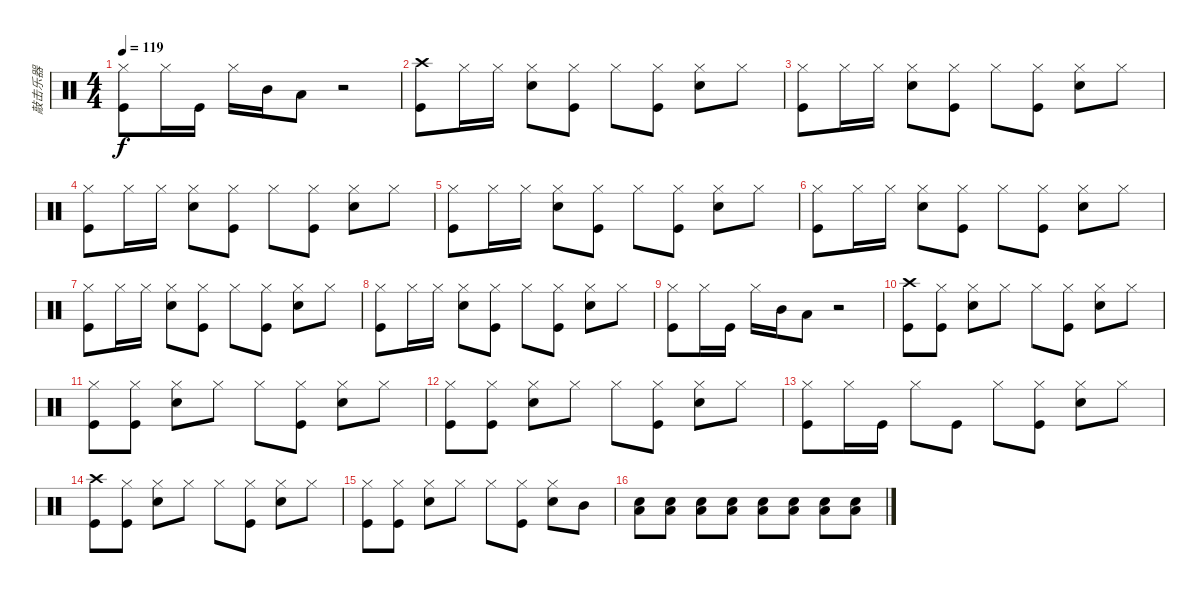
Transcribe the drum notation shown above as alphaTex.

\track ("敲击乐器" "敲击乐器") {instrument percussion}
\staff {score}
\articulation defaults
\ts (4 4)
\tempo 119
\clef neutral
\ks c
("Hi-Hat (closed)" "Kick (hit)").8{dy f} "Hi-Hat (closed)".16 "Kick (hit)".16 "Hi-Hat (closed)".16 "Mid Tom (hit)".16 "Low Tom (hit)".8 r.2 |
("Crash high (hit)" "Kick (hit)").8 "Hi-Hat (closed)".16 "Hi-Hat (closed)".16 ("Hi-Hat (closed)" "Electric Snare (hit)").8 ("Hi-Hat (closed)" "Kick (hit)").8 "Hi-Hat (closed)".8 ("Hi-Hat (closed)" "Kick (hit)").8 ("Hi-Hat (closed)" "Electric Snare (hit)").8 "Hi-Hat (closed)".8 |
("Hi-Hat (closed)" "Kick (hit)").8 "Hi-Hat (closed)".16 "Hi-Hat (closed)".16 ("Hi-Hat (closed)" "Electric Snare (hit)").8 ("Hi-Hat (closed)" "Kick (hit)").8 "Hi-Hat (closed)".8 ("Hi-Hat (closed)" "Kick (hit)").8 ("Hi-Hat (closed)" "Electric Snare (hit)").8 "Hi-Hat (closed)".8 |
("Hi-Hat (closed)" "Kick (hit)").8 "Hi-Hat (closed)".16 "Hi-Hat (closed)".16 ("Hi-Hat (closed)" "Electric Snare (hit)").8 ("Hi-Hat (closed)" "Kick (hit)").8 "Hi-Hat (closed)".8 ("Hi-Hat (closed)" "Kick (hit)").8 ("Hi-Hat (closed)" "Electric Snare (hit)").8 "Hi-Hat (closed)".8 |
("Hi-Hat (closed)" "Kick (hit)").8 "Hi-Hat (closed)".16 "Hi-Hat (closed)".16 ("Hi-Hat (closed)" "Electric Snare (hit)").8 ("Hi-Hat (closed)" "Kick (hit)").8 "Hi-Hat (closed)".8 ("Hi-Hat (closed)" "Kick (hit)").8 ("Hi-Hat (closed)" "Electric Snare (hit)").8 "Hi-Hat (closed)".8 |
("Hi-Hat (closed)" "Kick (hit)").8 "Hi-Hat (closed)".16 "Hi-Hat (closed)".16 ("Hi-Hat (closed)" "Electric Snare (hit)").8 ("Hi-Hat (closed)" "Kick (hit)").8 "Hi-Hat (closed)".8 ("Hi-Hat (closed)" "Kick (hit)").8 ("Hi-Hat (closed)" "Electric Snare (hit)").8 "Hi-Hat (closed)".8 |
("Hi-Hat (closed)" "Kick (hit)").8 "Hi-Hat (closed)".16 "Hi-Hat (closed)".16 ("Hi-Hat (closed)" "Electric Snare (hit)").8 ("Hi-Hat (closed)" "Kick (hit)").8 "Hi-Hat (closed)".8 ("Hi-Hat (closed)" "Kick (hit)").8 ("Hi-Hat (closed)" "Electric Snare (hit)").8 "Hi-Hat (closed)".8 |
("Hi-Hat (closed)" "Kick (hit)").8 "Hi-Hat (closed)".16 "Hi-Hat (closed)".16 ("Hi-Hat (closed)" "Electric Snare (hit)").8 ("Hi-Hat (closed)" "Kick (hit)").8 "Hi-Hat (closed)".8 ("Hi-Hat (closed)" "Kick (hit)").8 ("Hi-Hat (closed)" "Electric Snare (hit)").8 "Hi-Hat (closed)".8 |
("Hi-Hat (closed)" "Kick (hit)").8 "Hi-Hat (closed)".16 "Kick (hit)".16 "Hi-Hat (closed)".16 "Mid Tom (hit)".16 "Low Tom (hit)".8 r.2 |
("Crash high (hit)" "Kick (hit)").8 ("Hi-Hat (closed)" "Kick (hit)").8 ("Hi-Hat (closed)" "Electric Snare (hit)").8 "Hi-Hat (closed)".8 "Hi-Hat (closed)".8 ("Hi-Hat (closed)" "Kick (hit)").8 ("Hi-Hat (closed)" "Electric Snare (hit)").8 "Hi-Hat (closed)".8 |
("Hi-Hat (closed)" "Kick (hit)").8 ("Hi-Hat (closed)" "Kick (hit)").8 ("Hi-Hat (closed)" "Electric Snare (hit)").8 "Hi-Hat (closed)".8 "Hi-Hat (closed)".8 ("Hi-Hat (closed)" "Kick (hit)").8 ("Hi-Hat (closed)" "Electric Snare (hit)").8 "Hi-Hat (closed)".8 |
("Hi-Hat (closed)" "Kick (hit)").8 ("Hi-Hat (closed)" "Kick (hit)").8 ("Hi-Hat (closed)" "Electric Snare (hit)").8 "Hi-Hat (closed)".8 "Hi-Hat (closed)".8 ("Hi-Hat (closed)" "Kick (hit)").8 ("Hi-Hat (closed)" "Electric Snare (hit)").8 "Hi-Hat (closed)".8 |
("Hi-Hat (closed)" "Kick (hit)").8 "Hi-Hat (closed)".16 "Kick (hit)".16 "Hi-Hat (closed)".8 "Kick (hit)".8 "Hi-Hat (closed)".8 ("Hi-Hat (closed)" "Kick (hit)").8 ("Hi-Hat (closed)" "Electric Snare (hit)").8 "Hi-Hat (closed)".8 |
("Crash high (hit)" "Kick (hit)").8 ("Hi-Hat (closed)" "Kick (hit)").8 ("Hi-Hat (closed)" "Electric Snare (hit)").8 "Hi-Hat (closed)".8 "Hi-Hat (closed)".8 ("Hi-Hat (closed)" "Kick (hit)").8 ("Hi-Hat (closed)" "Electric Snare (hit)").8 "Hi-Hat (closed)".8 |
("Hi-Hat (closed)" "Kick (hit)").8 ("Hi-Hat (closed)" "Kick (hit)").8 ("Hi-Hat (closed)" "Electric Snare (hit)").8 "Hi-Hat (closed)".8 "Hi-Hat (closed)".8 ("Hi-Hat (closed)" "Kick (hit)").8 ("Hi-Hat (closed)" "Electric Snare (hit)").8 "Mid Tom (hit)".8 |
("Electric Snare (hit)" "Low Tom (hit)").8 ("Electric Snare (hit)" "Low Tom (hit)").8 ("Electric Snare (hit)" "Low Tom (hit)").8 ("Electric Snare (hit)" "Low Tom (hit)").8 ("Electric Snare (hit)" "Low Tom (hit)").8 ("Electric Snare (hit)" "Low Tom (hit)").8 ("Electric Snare (hit)" "Low Tom (hit)").8 ("Electric Snare (hit)" "Low Tom (hit)").8
